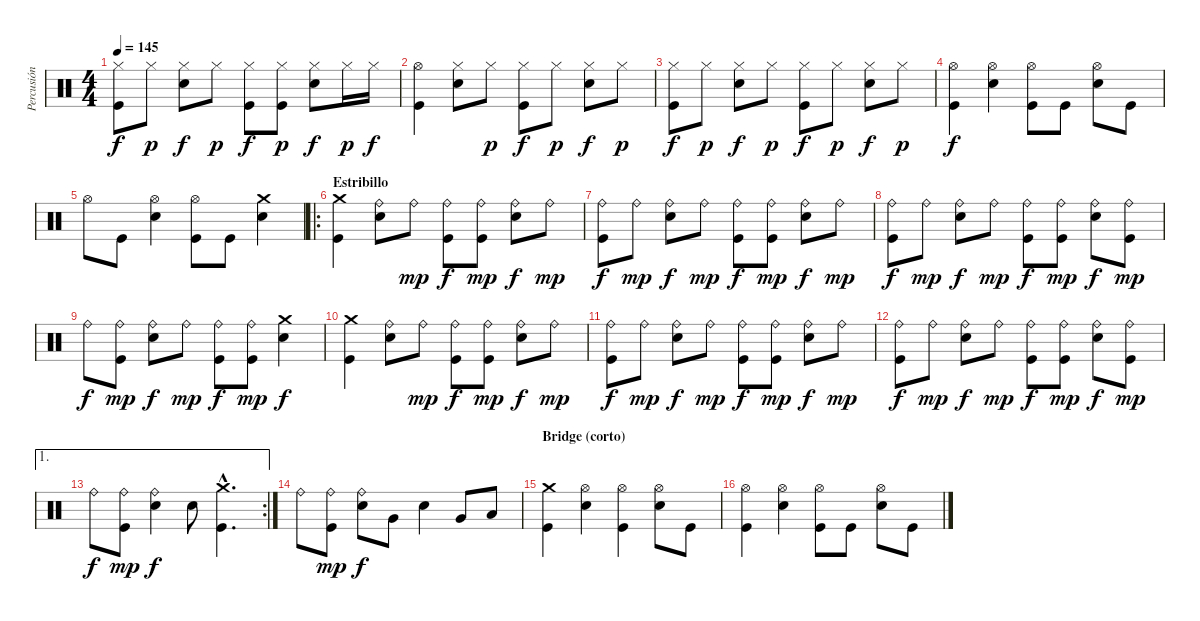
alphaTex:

\track ("Percusión" "Percusión") {instrument percussion}
\staff {score}
\articulation defaults
\ts (4 4)
\tempo 145
\clef neutral
\ks c
("Hi-Hat (closed)" "Kick (hit)").8{dy f} "Hi-Hat (closed)".8{dy p} ("Hi-Hat (closed)" "Snare (hit) 2").8{dy f} "Hi-Hat (closed)".8{dy p} ("Hi-Hat (closed)" "Kick (hit)").8{dy f} ("Hi-Hat (closed)" "Kick (hit)").8{dy p} ("Hi-Hat (closed)" "Snare (hit) 2").8{dy f} "Hi-Hat (closed)".16{dy p} "Hi-Hat (closed)".16{dy f} |
("Hi-Hat (open)" "Kick (hit)").4 ("Hi-Hat (closed)" "Snare (hit) 2").8 "Hi-Hat (closed)".8{dy p} ("Hi-Hat (closed)" "Kick (hit)").8{dy f} "Hi-Hat (closed)".8{dy p} ("Hi-Hat (closed)" "Snare (hit) 2").8{dy f} "Hi-Hat (closed)".8{dy p} |
("Hi-Hat (closed)" "Kick (hit)").8{dy f} "Hi-Hat (closed)".8{dy p} ("Hi-Hat (closed)" "Snare (hit) 2").8{dy f} "Hi-Hat (closed)".8{dy p} ("Hi-Hat (closed)" "Kick (hit)").8{dy f} "Hi-Hat (closed)".8{dy p} ("Hi-Hat (closed)" "Snare (hit) 2").8{dy f} "Hi-Hat (closed)".8{dy p} |
("Hi-Hat (open)" "Kick (hit)").4{dy f} ("Hi-Hat (open)" "Snare (hit) 2").4 ("Hi-Hat (open)" "Kick (hit)").8 "Kick (hit)".8 ("Hi-Hat (open)" "Snare (hit) 2").8 "Kick (hit)".8 |
"Hi-Hat (open)".8 "Kick (hit)".8 ("Hi-Hat (open)" "Snare (hit) 2").4 ("Hi-Hat (open)" "Kick (hit)").8 "Kick (hit)".8 ("Crash medium (hit)" "Snare (hit) 2").4 |
\ro
\section ("" "Estribillo")
("Crash medium (hit)" "Kick (hit)").4 ("Ride (bell)" "Snare (hit) 2").8 "Ride (bell)".8{dy mp} ("Ride (bell)" "Kick (hit)").8{dy f} ("Ride (bell)" "Kick (hit)").8{dy mp} ("Ride (bell)" "Snare (hit) 2").8{dy f} "Ride (bell)".8{dy mp} |
("Ride (bell)" "Kick (hit)").8{dy f} "Ride (bell)".8{dy mp} ("Ride (bell)" "Snare (hit) 2").8{dy f} "Ride (bell)".8{dy mp} ("Ride (bell)" "Kick (hit)").8{dy f} ("Ride (bell)" "Kick (hit)").8{dy mp} ("Ride (bell)" "Snare (hit) 2").8{dy f} "Ride (bell)".8{dy mp} |
("Ride (bell)" "Kick (hit)").8{dy f} "Ride (bell)".8{dy mp} ("Ride (bell)" "Snare (hit) 2").8{dy f} "Ride (bell)".8{dy mp} ("Ride (bell)" "Kick (hit)").8{dy f} ("Ride (bell)" "Kick (hit)").8{dy mp} ("Ride (bell)" "Snare (hit) 2").8{dy f} ("Ride (bell)" "Kick (hit)").8{dy mp} |
"Ride (bell)".8{dy f} ("Ride (bell)" "Kick (hit)").8{dy mp} ("Ride (bell)" "Snare (hit) 2").8{dy f} "Ride (bell)".8{dy mp} ("Ride (bell)" "Kick (hit)").8{dy f} ("Ride (bell)" "Kick (hit)").8{dy mp} ("Crash medium (hit)" "Snare (hit) 2").4{dy f} |
("Crash medium (hit)" "Kick (hit)").4 ("Ride (bell)" "Snare (hit) 2").8 "Ride (bell)".8{dy mp} ("Ride (bell)" "Kick (hit)").8{dy f} ("Ride (bell)" "Kick (hit)").8{dy mp} ("Ride (bell)" "Snare (hit) 2").8{dy f} "Ride (bell)".8{dy mp} |
("Ride (bell)" "Kick (hit)").8{dy f} "Ride (bell)".8{dy mp} ("Ride (bell)" "Snare (hit) 2").8{dy f} "Ride (bell)".8{dy mp} ("Ride (bell)" "Kick (hit)").8{dy f} ("Ride (bell)" "Kick (hit)").8{dy mp} ("Ride (bell)" "Snare (hit) 2").8{dy f} "Ride (bell)".8{dy mp} |
("Ride (bell)" "Kick (hit)").8{dy f} "Ride (bell)".8{dy mp} ("Ride (bell)" "Snare (hit) 2").8{dy f} "Ride (bell)".8{dy mp} ("Ride (bell)" "Kick (hit)").8{dy f} ("Ride (bell)" "Kick (hit)").8{dy mp} ("Ride (bell)" "Snare (hit) 2").8{dy f} ("Ride (bell)" "Kick (hit)").8{dy mp} |
\ae 1
\rc 2 "Ride (bell)".8{dy f}
("Ride (bell)" "Kick (hit)").8{dy mp} ("Ride (bell)" "Snare (hit) 2").4{dy f} "Snare (hit) 2".8 ("Crash medium (hit)"{hac} "Kick (hit)"{hac}).4{d} |
"Ride (bell)".8 ("Ride (bell)" "Kick (hit)").8{dy mp} ("Ride (bell)" "Snare (hit) 2").8{dy f} "Very Low Tom (hit)".8 "Snare (hit) 2".4 "Very Low Tom (hit)".8 "Low Floor Tom (hit)".8 |
\section ("" "Bridge (corto)")
("Crash medium (hit)" "Kick (hit)").4 ("Hi-Hat (open)" "Snare (hit) 2").4 ("Hi-Hat (open)" "Kick (hit)").4 ("Hi-Hat (open)" "Snare (hit) 2").8 "Kick (hit)".8 |
("Hi-Hat (open)" "Kick (hit)").4 ("Hi-Hat (open)" "Snare (hit) 2").4 ("Hi-Hat (open)" "Kick (hit)").8 "Kick (hit)".8 ("Hi-Hat (open)" "Snare (hit) 2").8 "Kick (hit)".8
